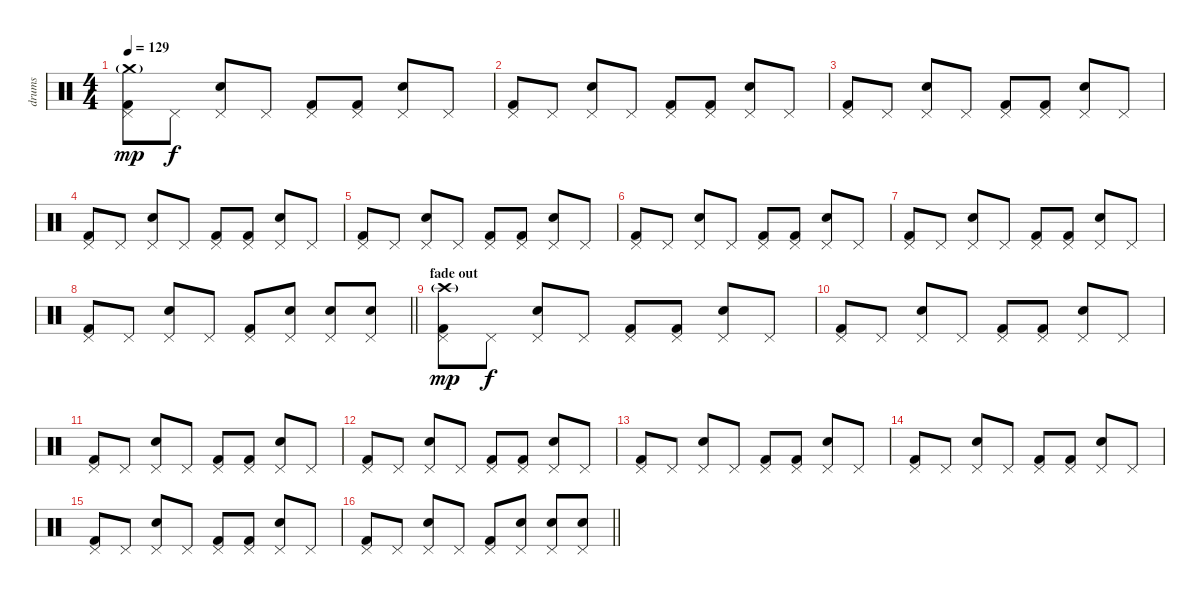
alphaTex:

\track ("drums" "drums") {instrument percussion}
\staff {score}
\articulation defaults
\ts (4 4)
\tempo 129
\clef neutral
\ks c
("Kick (hit) 2" "Pedal Hi-Hat (hit)" "Crash medium (hit)"{g}).8{dy mp} "Pedal Hi-Hat (hit)".8{dy f} ("Electric Snare (hit)" "Pedal Hi-Hat (hit)").8 "Pedal Hi-Hat (hit)".8 ("Kick (hit) 2" "Pedal Hi-Hat (hit)").8 ("Kick (hit) 2" "Pedal Hi-Hat (hit)").8 ("Electric Snare (hit)" "Pedal Hi-Hat (hit)").8 "Pedal Hi-Hat (hit)".8 |
("Kick (hit) 2" "Pedal Hi-Hat (hit)").8 "Pedal Hi-Hat (hit)".8 ("Electric Snare (hit)" "Pedal Hi-Hat (hit)").8 "Pedal Hi-Hat (hit)".8 ("Kick (hit) 2" "Pedal Hi-Hat (hit)").8 ("Kick (hit) 2" "Pedal Hi-Hat (hit)").8 ("Electric Snare (hit)" "Pedal Hi-Hat (hit)").8 "Pedal Hi-Hat (hit)".8 |
("Kick (hit) 2" "Pedal Hi-Hat (hit)").8 "Pedal Hi-Hat (hit)".8 ("Electric Snare (hit)" "Pedal Hi-Hat (hit)").8 "Pedal Hi-Hat (hit)".8 ("Kick (hit) 2" "Pedal Hi-Hat (hit)").8 ("Kick (hit) 2" "Pedal Hi-Hat (hit)").8 ("Electric Snare (hit)" "Pedal Hi-Hat (hit)").8 "Pedal Hi-Hat (hit)".8 |
("Kick (hit) 2" "Pedal Hi-Hat (hit)").8 "Pedal Hi-Hat (hit)".8 ("Electric Snare (hit)" "Pedal Hi-Hat (hit)").8 "Pedal Hi-Hat (hit)".8 ("Kick (hit) 2" "Pedal Hi-Hat (hit)").8 ("Kick (hit) 2" "Pedal Hi-Hat (hit)").8 ("Electric Snare (hit)" "Pedal Hi-Hat (hit)").8 "Pedal Hi-Hat (hit)".8 |
("Kick (hit) 2" "Pedal Hi-Hat (hit)").8 "Pedal Hi-Hat (hit)".8 ("Electric Snare (hit)" "Pedal Hi-Hat (hit)").8 "Pedal Hi-Hat (hit)".8 ("Kick (hit) 2" "Pedal Hi-Hat (hit)").8 ("Kick (hit) 2" "Pedal Hi-Hat (hit)").8 ("Electric Snare (hit)" "Pedal Hi-Hat (hit)").8 "Pedal Hi-Hat (hit)".8 |
("Kick (hit) 2" "Pedal Hi-Hat (hit)").8 "Pedal Hi-Hat (hit)".8 ("Electric Snare (hit)" "Pedal Hi-Hat (hit)").8 "Pedal Hi-Hat (hit)".8 ("Kick (hit) 2" "Pedal Hi-Hat (hit)").8 ("Kick (hit) 2" "Pedal Hi-Hat (hit)").8 ("Electric Snare (hit)" "Pedal Hi-Hat (hit)").8 "Pedal Hi-Hat (hit)".8 |
("Kick (hit) 2" "Pedal Hi-Hat (hit)").8 "Pedal Hi-Hat (hit)".8 ("Electric Snare (hit)" "Pedal Hi-Hat (hit)").8 "Pedal Hi-Hat (hit)".8 ("Kick (hit) 2" "Pedal Hi-Hat (hit)").8 ("Kick (hit) 2" "Pedal Hi-Hat (hit)").8 ("Electric Snare (hit)" "Pedal Hi-Hat (hit)").8 "Pedal Hi-Hat (hit)".8 |
\barLineRight lightlight
("Kick (hit) 2" "Pedal Hi-Hat (hit)").8 "Pedal Hi-Hat (hit)".8 ("Electric Snare (hit)" "Pedal Hi-Hat (hit)").8 "Pedal Hi-Hat (hit)".8 ("Kick (hit) 2" "Pedal Hi-Hat (hit)").8 ("Electric Snare (hit)" "Pedal Hi-Hat (hit)").8 ("Electric Snare (hit)" "Pedal Hi-Hat (hit)").8 ("Electric Snare (hit)" "Pedal Hi-Hat (hit)").8 |
\section ("" "fade out")
("Kick (hit) 2" "Pedal Hi-Hat (hit)" "Crash high (hit)"{g}).8{dy mp} "Pedal Hi-Hat (hit)".8{dy f} ("Electric Snare (hit)" "Pedal Hi-Hat (hit)").8 "Pedal Hi-Hat (hit)".8 ("Kick (hit) 2" "Pedal Hi-Hat (hit)").8 ("Kick (hit) 2" "Pedal Hi-Hat (hit)").8 ("Electric Snare (hit)" "Pedal Hi-Hat (hit)").8 "Pedal Hi-Hat (hit)".8 |
("Kick (hit) 2" "Pedal Hi-Hat (hit)").8 "Pedal Hi-Hat (hit)".8 ("Electric Snare (hit)" "Pedal Hi-Hat (hit)").8 "Pedal Hi-Hat (hit)".8 ("Kick (hit) 2" "Pedal Hi-Hat (hit)").8 ("Kick (hit) 2" "Pedal Hi-Hat (hit)").8 ("Electric Snare (hit)" "Pedal Hi-Hat (hit)").8 "Pedal Hi-Hat (hit)".8 |
("Kick (hit) 2" "Pedal Hi-Hat (hit)").8 "Pedal Hi-Hat (hit)".8 ("Electric Snare (hit)" "Pedal Hi-Hat (hit)").8 "Pedal Hi-Hat (hit)".8 ("Kick (hit) 2" "Pedal Hi-Hat (hit)").8 ("Kick (hit) 2" "Pedal Hi-Hat (hit)").8 ("Electric Snare (hit)" "Pedal Hi-Hat (hit)").8 "Pedal Hi-Hat (hit)".8 |
("Kick (hit) 2" "Pedal Hi-Hat (hit)").8 "Pedal Hi-Hat (hit)".8 ("Electric Snare (hit)" "Pedal Hi-Hat (hit)").8 "Pedal Hi-Hat (hit)".8 ("Kick (hit) 2" "Pedal Hi-Hat (hit)").8 ("Kick (hit) 2" "Pedal Hi-Hat (hit)").8 ("Electric Snare (hit)" "Pedal Hi-Hat (hit)").8 "Pedal Hi-Hat (hit)".8 |
("Kick (hit) 2" "Pedal Hi-Hat (hit)").8 "Pedal Hi-Hat (hit)".8 ("Electric Snare (hit)" "Pedal Hi-Hat (hit)").8 "Pedal Hi-Hat (hit)".8 ("Kick (hit) 2" "Pedal Hi-Hat (hit)").8 ("Kick (hit) 2" "Pedal Hi-Hat (hit)").8 ("Electric Snare (hit)" "Pedal Hi-Hat (hit)").8 "Pedal Hi-Hat (hit)".8 |
("Kick (hit) 2" "Pedal Hi-Hat (hit)").8 "Pedal Hi-Hat (hit)".8 ("Electric Snare (hit)" "Pedal Hi-Hat (hit)").8 "Pedal Hi-Hat (hit)".8 ("Kick (hit) 2" "Pedal Hi-Hat (hit)").8 ("Kick (hit) 2" "Pedal Hi-Hat (hit)").8 ("Electric Snare (hit)" "Pedal Hi-Hat (hit)").8 "Pedal Hi-Hat (hit)".8 |
("Kick (hit) 2" "Pedal Hi-Hat (hit)").8 "Pedal Hi-Hat (hit)".8 ("Electric Snare (hit)" "Pedal Hi-Hat (hit)").8 "Pedal Hi-Hat (hit)".8 ("Kick (hit) 2" "Pedal Hi-Hat (hit)").8 ("Kick (hit) 2" "Pedal Hi-Hat (hit)").8 ("Electric Snare (hit)" "Pedal Hi-Hat (hit)").8 "Pedal Hi-Hat (hit)".8 |
\barLineRight lightlight
("Kick (hit) 2" "Pedal Hi-Hat (hit)").8 "Pedal Hi-Hat (hit)".8 ("Electric Snare (hit)" "Pedal Hi-Hat (hit)").8 "Pedal Hi-Hat (hit)".8 ("Kick (hit) 2" "Pedal Hi-Hat (hit)").8 ("Electric Snare (hit)" "Pedal Hi-Hat (hit)").8 ("Electric Snare (hit)" "Pedal Hi-Hat (hit)").8 ("Electric Snare (hit)" "Pedal Hi-Hat (hit)").8
